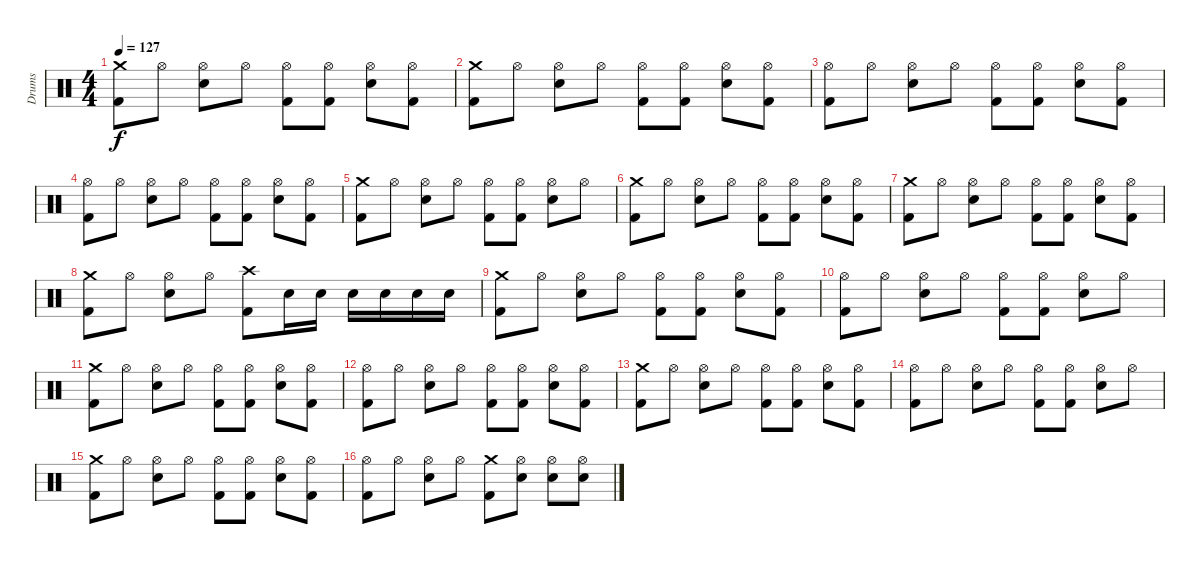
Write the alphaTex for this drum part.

\track ("Drums" "Drums") {instrument percussion}
\staff {score}
\articulation defaults
\ts (4 4)
\tempo 127
\clef neutral
\ks c
("Kick (hit) 2" "Crash medium (hit)").8{dy f} "Hi-Hat (open)".8 ("Electric Snare (hit)" "Hi-Hat (open)").8 "Hi-Hat (open)".8 ("Kick (hit) 2" "Hi-Hat (open)").8 ("Kick (hit) 2" "Hi-Hat (open)").8 ("Electric Snare (hit)" "Hi-Hat (open)").8 ("Kick (hit) 2" "Hi-Hat (open)").8 |
("Kick (hit) 2" "Crash medium (hit)").8 "Hi-Hat (open)".8 ("Electric Snare (hit)" "Hi-Hat (open)").8 "Hi-Hat (open)".8 ("Kick (hit) 2" "Hi-Hat (open)").8 ("Kick (hit) 2" "Hi-Hat (open)").8 ("Electric Snare (hit)" "Hi-Hat (open)").8 ("Kick (hit) 2" "Hi-Hat (open)").8 |
("Kick (hit) 2" "Hi-Hat (open)").8 "Hi-Hat (open)".8 ("Electric Snare (hit)" "Hi-Hat (open)").8 "Hi-Hat (open)".8 ("Kick (hit) 2" "Hi-Hat (open)").8 ("Kick (hit) 2" "Hi-Hat (open)").8 ("Electric Snare (hit)" "Hi-Hat (open)").8 ("Kick (hit) 2" "Hi-Hat (open)").8 |
("Kick (hit) 2" "Hi-Hat (open)").8 "Hi-Hat (open)".8 ("Electric Snare (hit)" "Hi-Hat (open)").8 "Hi-Hat (open)".8 ("Kick (hit) 2" "Hi-Hat (open)").8 ("Kick (hit) 2" "Hi-Hat (open)").8 ("Electric Snare (hit)" "Hi-Hat (open)").8 ("Kick (hit) 2" "Hi-Hat (open)").8 |
("Kick (hit) 2" "Crash medium (hit)").8 "Hi-Hat (open)".8 ("Electric Snare (hit)" "Hi-Hat (open)").8 "Hi-Hat (open)".8 ("Kick (hit) 2" "Hi-Hat (open)").8 ("Kick (hit) 2" "Hi-Hat (open)").8 ("Electric Snare (hit)" "Hi-Hat (open)").8 "Hi-Hat (open)".8 |
("Kick (hit) 2" "Crash medium (hit)").8 "Hi-Hat (open)".8 ("Electric Snare (hit)" "Hi-Hat (open)").8 "Hi-Hat (open)".8 ("Kick (hit) 2" "Hi-Hat (open)").8 ("Kick (hit) 2" "Hi-Hat (open)").8 ("Electric Snare (hit)" "Hi-Hat (open)").8 ("Kick (hit) 2" "Hi-Hat (open)").8 |
("Kick (hit) 2" "Crash medium (hit)").8 "Hi-Hat (open)".8 ("Electric Snare (hit)" "Hi-Hat (open)").8 "Hi-Hat (open)".8 ("Kick (hit) 2" "Hi-Hat (open)").8 ("Kick (hit) 2" "Hi-Hat (open)").8 ("Electric Snare (hit)" "Hi-Hat (open)").8 ("Kick (hit) 2" "Hi-Hat (open)").8 |
("Kick (hit) 2" "Crash medium (hit)").8 "Hi-Hat (open)".8 ("Electric Snare (hit)" "Hi-Hat (open)").8 "Hi-Hat (open)".8 ("Kick (hit) 2" "Crash high (hit)").8 "Electric Snare (hit)".16 "Electric Snare (hit)".16 "Electric Snare (hit)".16 "Electric Snare (hit)".16 "Electric Snare (hit)".16 "Electric Snare (hit)".16 |
("Kick (hit) 2" "Crash medium (hit)").8 "Hi-Hat (open)".8 ("Electric Snare (hit)" "Hi-Hat (open)").8 "Hi-Hat (open)".8 ("Kick (hit) 2" "Hi-Hat (open)").8 ("Kick (hit) 2" "Hi-Hat (open)").8 ("Electric Snare (hit)" "Hi-Hat (open)").8 ("Kick (hit) 2" "Hi-Hat (open)").8 |
("Kick (hit) 2" "Hi-Hat (open)").8 "Hi-Hat (open)".8 ("Electric Snare (hit)" "Hi-Hat (open)").8 "Hi-Hat (open)".8 ("Kick (hit) 2" "Hi-Hat (open)").8 ("Kick (hit) 2" "Hi-Hat (open)").8 ("Electric Snare (hit)" "Hi-Hat (open)").8 "Hi-Hat (open)".8 |
("Kick (hit) 2" "Crash medium (hit)").8 "Hi-Hat (open)".8 ("Electric Snare (hit)" "Hi-Hat (open)").8 "Hi-Hat (open)".8 ("Kick (hit) 2" "Hi-Hat (open)").8 ("Kick (hit) 2" "Hi-Hat (open)").8 ("Electric Snare (hit)" "Hi-Hat (open)").8 ("Kick (hit) 2" "Hi-Hat (open)").8 |
("Kick (hit) 2" "Hi-Hat (open)").8 "Hi-Hat (open)".8 ("Electric Snare (hit)" "Hi-Hat (open)").8 "Hi-Hat (open)".8 ("Kick (hit) 2" "Hi-Hat (open)").8 ("Kick (hit) 2" "Hi-Hat (open)").8 ("Electric Snare (hit)" "Hi-Hat (open)").8 ("Kick (hit) 2" "Hi-Hat (open)").8 |
("Kick (hit) 2" "Crash medium (hit)").8 "Hi-Hat (open)".8 ("Electric Snare (hit)" "Hi-Hat (open)").8 "Hi-Hat (open)".8 ("Kick (hit) 2" "Hi-Hat (open)").8 ("Kick (hit) 2" "Hi-Hat (open)").8 ("Electric Snare (hit)" "Hi-Hat (open)").8 ("Kick (hit) 2" "Hi-Hat (open)").8 |
("Kick (hit) 2" "Hi-Hat (open)").8 "Hi-Hat (open)".8 ("Electric Snare (hit)" "Hi-Hat (open)").8 "Hi-Hat (open)".8 ("Kick (hit) 2" "Hi-Hat (open)").8 ("Kick (hit) 2" "Hi-Hat (open)").8 ("Electric Snare (hit)" "Hi-Hat (open)").8 "Hi-Hat (open)".8 |
("Kick (hit) 2" "Crash medium (hit)").8 "Hi-Hat (open)".8 ("Electric Snare (hit)" "Hi-Hat (open)").8 "Hi-Hat (open)".8 ("Kick (hit) 2" "Hi-Hat (open)").8 ("Kick (hit) 2" "Hi-Hat (open)").8 ("Electric Snare (hit)" "Hi-Hat (open)").8 ("Kick (hit) 2" "Hi-Hat (open)").8 |
("Kick (hit) 2" "Hi-Hat (open)").8 "Hi-Hat (open)".8 ("Electric Snare (hit)" "Hi-Hat (open)").8 "Hi-Hat (open)".8 ("Kick (hit) 2" "Crash medium (hit)").8 ("Electric Snare (hit)" "Hi-Hat (open)").8 ("Electric Snare (hit)" "Hi-Hat (open)").8 ("Electric Snare (hit)" "Hi-Hat (open)").8
